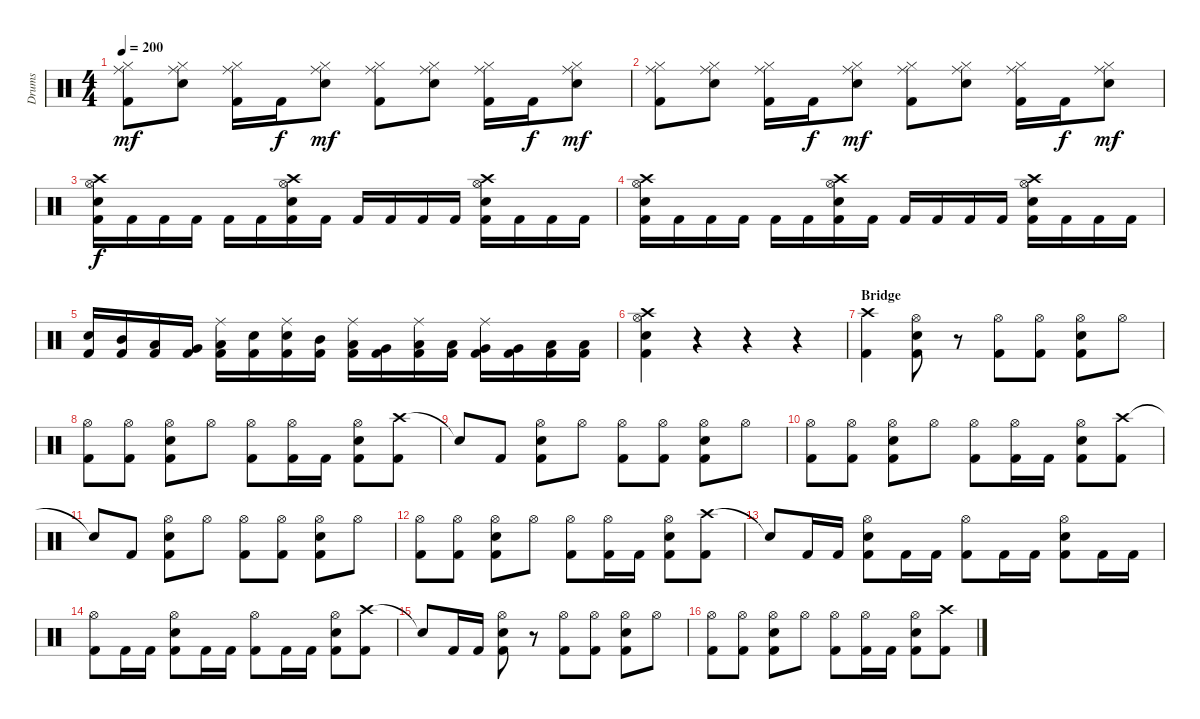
\track ("Drums" "Drums") {instrument percussion}
\staff {score}
\articulation defaults
\ts (4 4)
\tempo 200
\clef neutral
\ks c
("Hi-Hat (closed)" "Ride (middle)" "Kick (hit) 2").8{dy mf} ("Hi-Hat (closed)" "Ride (middle)" "Snare (hit) 2").8 ("Hi-Hat (closed)" "Ride (middle)" "Kick (hit) 2").16 "Kick (hit) 2".16{dy f} ("Hi-Hat (closed)" "Ride (middle)" "Snare (hit) 2").8{dy mf} ("Hi-Hat (closed)" "Ride (middle)" "Kick (hit) 2").8 ("Hi-Hat (closed)" "Ride (middle)" "Snare (hit) 2").8 ("Hi-Hat (closed)" "Ride (middle)" "Kick (hit) 2").16 "Kick (hit) 2".16{dy f} ("Hi-Hat (closed)" "Ride (middle)" "Snare (hit) 2").8{dy mf} |
("Hi-Hat (closed)" "Ride (middle)" "Kick (hit) 2").8 ("Hi-Hat (closed)" "Ride (middle)" "Snare (hit) 2").8 ("Hi-Hat (closed)" "Ride (middle)" "Kick (hit) 2").16 "Kick (hit) 2".16{dy f} ("Hi-Hat (closed)" "Ride (middle)" "Snare (hit) 2").8{dy mf} ("Hi-Hat (closed)" "Ride (middle)" "Kick (hit) 2").8 ("Hi-Hat (closed)" "Ride (middle)" "Snare (hit) 2").8 ("Hi-Hat (closed)" "Ride (middle)" "Kick (hit) 2").16 "Kick (hit) 2".16{dy f} ("Hi-Hat (closed)" "Ride (middle)" "Snare (hit) 2").8{dy mf} |
("Crash high (hit)" "Hi-Hat (open)" "Snare (hit) 2" "Kick (hit) 2").16{dy f} "Kick (hit) 2".16 "Kick (hit) 2".16 "Kick (hit) 2".16 "Kick (hit) 2".16 "Kick (hit) 2".16 ("Crash high (hit)" "Hi-Hat (open)" "Snare (hit) 2" "Kick (hit) 2").16 "Kick (hit) 2".16 "Kick (hit) 2".16 "Kick (hit) 2".16 "Kick (hit) 2".16 "Kick (hit) 2".16 ("Crash high (hit)" "Hi-Hat (open)" "Snare (hit) 2" "Kick (hit) 2").16 "Kick (hit) 2".16 "Kick (hit) 2".16 "Kick (hit) 2".16 |
("Crash high (hit)" "Hi-Hat (open)" "Snare (hit) 2" "Kick (hit) 2").16 "Kick (hit) 2".16 "Kick (hit) 2".16 "Kick (hit) 2".16 "Kick (hit) 2".16 "Kick (hit) 2".16 ("Crash high (hit)" "Hi-Hat (open)" "Snare (hit) 2" "Kick (hit) 2").16 "Kick (hit) 2".16 "Kick (hit) 2".16 "Kick (hit) 2".16 "Kick (hit) 2".16 "Kick (hit) 2".16 ("Crash high (hit)" "Hi-Hat (open)" "Snare (hit) 2" "Kick (hit) 2").16 "Kick (hit) 2".16 "Kick (hit) 2".16 "Kick (hit) 2".16 |
("Snare (hit) 2" "Kick (hit) 2").16 ("Mid Tom (hit)" "Kick (hit) 2").16 ("Low Tom (hit)" "Kick (hit) 2").16 ("Very Low Tom (hit)" "Kick (hit) 2").16 ("Ride (middle)" "Low Floor Tom (hit)" "Kick (hit) 2").16 ("Snare (hit) 2" "Kick (hit) 2").16 ("Ride (middle)" "Snare (hit) 2" "Kick (hit) 2").16 ("Mid Tom (hit)" "Kick (hit) 2").16 ("Ride (middle)" "Low Tom (hit)" "Kick (hit) 2").16 ("Very Low Tom (hit)" "Kick (hit) 2").16 ("Ride (middle)" "Low Tom (hit)" "Kick (hit) 2").16 ("Low Tom (hit)" "Kick (hit) 2").16 ("Ride (middle)" "Very Low Tom (hit)" "Kick (hit) 2").16 ("Very Low Tom (hit)" "Kick (hit) 2").16 ("Low Floor Tom (hit)" "Kick (hit) 2").16 ("Low Floor Tom (hit)" "Kick (hit) 2").16 |
("Crash high (hit)" "Hi-Hat (open)" "Snare (hit) 2" "Kick (hit) 2").4 r.4 r.4 r.4 |
\section ("" "Bridge")
("Crash high (hit)" "Kick (hit) 2").4 ("Hi-Hat (open)" "Snare (hit) 2" "Kick (hit) 2").8 r.8 ("Hi-Hat (open)" "Kick (hit) 2").8 ("Hi-Hat (open)" "Kick (hit) 2").8 ("Hi-Hat (open)" "Snare (hit) 2" "Kick (hit) 2").8 "Hi-Hat (open)".8 |
("Hi-Hat (open)" "Kick (hit) 2").8 ("Hi-Hat (open)" "Kick (hit) 2").8 ("Hi-Hat (open)" "Snare (hit) 2" "Kick (hit) 2").8 "Hi-Hat (open)".8 ("Hi-Hat (open)" "Kick (hit) 2").8 ("Hi-Hat (open)" "Kick (hit) 2").16 "Kick (hit) 2".16 ("Hi-Hat (open)" "Snare (hit) 2" "Kick (hit) 2").8 ("Crash high (hit)" "Kick (hit) 2").8 |
"Snare (hit)"{t}.8 "Kick (hit) 2".8 ("Hi-Hat (open)" "Snare (hit) 2" "Kick (hit) 2").8 "Hi-Hat (open)".8 ("Hi-Hat (open)" "Kick (hit) 2").8 ("Hi-Hat (open)" "Kick (hit) 2").8 ("Hi-Hat (open)" "Snare (hit) 2" "Kick (hit) 2").8 "Hi-Hat (open)".8 |
("Hi-Hat (open)" "Kick (hit) 2").8 ("Hi-Hat (open)" "Kick (hit) 2").8 ("Hi-Hat (open)" "Snare (hit) 2" "Kick (hit) 2").8 "Hi-Hat (open)".8 ("Hi-Hat (open)" "Kick (hit) 2").8 ("Hi-Hat (open)" "Kick (hit) 2").16 "Kick (hit) 2".16 ("Hi-Hat (open)" "Snare (hit) 2" "Kick (hit) 2").8 ("Crash high (hit)" "Kick (hit) 2").8 |
"Snare (hit)"{t}.8 "Kick (hit) 2".8 ("Hi-Hat (open)" "Snare (hit) 2" "Kick (hit) 2").8 "Hi-Hat (open)".8 ("Hi-Hat (open)" "Kick (hit) 2").8 ("Hi-Hat (open)" "Kick (hit) 2").8 ("Hi-Hat (open)" "Snare (hit) 2" "Kick (hit) 2").8 "Hi-Hat (open)".8 |
("Hi-Hat (open)" "Kick (hit) 2").8 ("Hi-Hat (open)" "Kick (hit) 2").8 ("Hi-Hat (open)" "Snare (hit) 2" "Kick (hit) 2").8 "Hi-Hat (open)".8 ("Hi-Hat (open)" "Kick (hit) 2").8 ("Hi-Hat (open)" "Kick (hit) 2").16 "Kick (hit) 2".16 ("Hi-Hat (open)" "Snare (hit) 2" "Kick (hit) 2").8 ("Crash high (hit)" "Kick (hit) 2").8 |
"Snare (hit)"{t}.8 "Kick (hit) 2".16 "Kick (hit) 2".16 ("Hi-Hat (open)" "Snare (hit) 2" "Kick (hit) 2").8 "Kick (hit) 2".16 "Kick (hit) 2".16 ("Hi-Hat (open)" "Kick (hit) 2").8 "Kick (hit) 2".16 "Kick (hit) 2".16 ("Hi-Hat (open)" "Snare (hit) 2" "Kick (hit) 2").8 "Kick (hit) 2".16 "Kick (hit) 2".16 |
("Hi-Hat (open)" "Kick (hit) 2").8 "Kick (hit) 2".16 "Kick (hit) 2".16 ("Hi-Hat (open)" "Snare (hit) 2" "Kick (hit) 2").8 "Kick (hit) 2".16 "Kick (hit) 2".16 ("Hi-Hat (open)" "Kick (hit) 2").8 "Kick (hit) 2".16 "Kick (hit) 2".16 ("Hi-Hat (open)" "Snare (hit) 2" "Kick (hit) 2").8 ("Crash high (hit)" "Kick (hit) 2").8 |
"Snare (hit)"{t}.8 "Kick (hit) 2".16 "Kick (hit) 2".16 ("Hi-Hat (open)" "Snare (hit) 2" "Kick (hit) 2").8 r.8 ("Hi-Hat (open)" "Kick (hit) 2").8 ("Hi-Hat (open)" "Kick (hit) 2").8 ("Hi-Hat (open)" "Snare (hit) 2" "Kick (hit) 2").8 "Hi-Hat (open)".8 |
("Hi-Hat (open)" "Kick (hit) 2").8 ("Hi-Hat (open)" "Kick (hit) 2").8 ("Hi-Hat (open)" "Snare (hit) 2" "Kick (hit) 2").8 "Hi-Hat (open)".8 ("Hi-Hat (open)" "Kick (hit) 2").8 ("Hi-Hat (open)" "Kick (hit) 2").16 "Kick (hit) 2".16 ("Hi-Hat (open)" "Snare (hit) 2" "Kick (hit) 2").8 ("Crash high (hit)" "Kick (hit) 2").8
